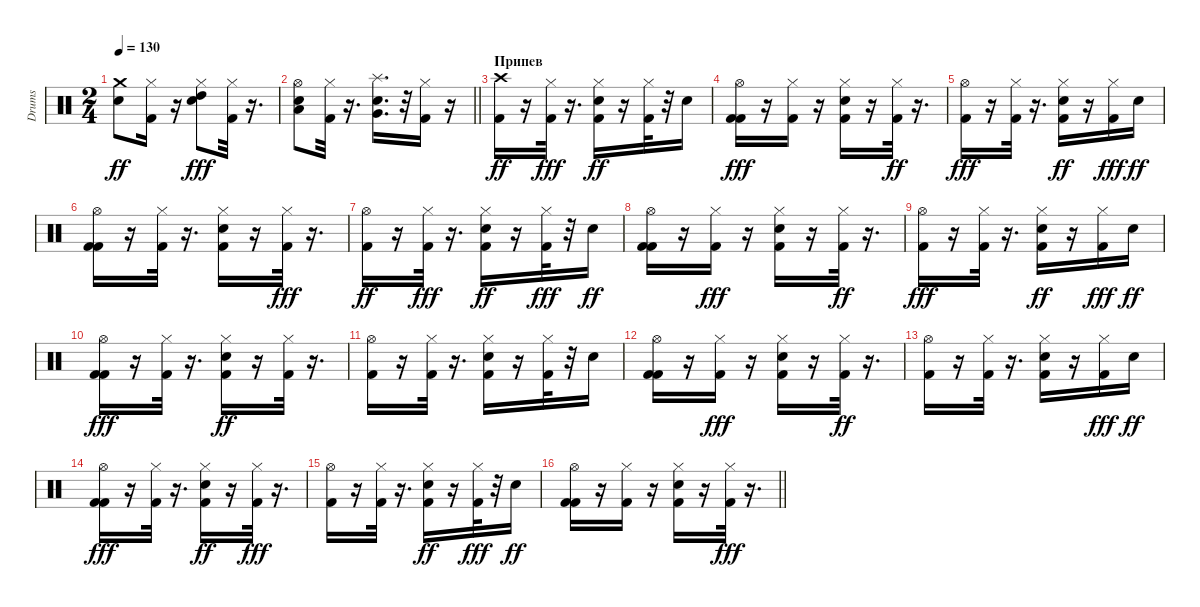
\track ("Drums" "Drums") {solo instrument percussion}
\staff {score}
\articulation defaults
\ts (2 4)
\tempo 130
\clef neutral
\ks c
("Snare (hit) 2" "Crash medium (hit)").8{dy ff} ("Hi-Hat (closed)" "Kick (hit) 2").16 r.16 ("Snare (hit) 2" "Hi-Hat (closed)" "High Tom (hit)").8{dy fff} ("Kick (hit) 2" "Hi-Hat (closed)").32 r.16{d} |
\barLineRight lightlight
("Low Tom (hit)" "Snare (hit) 2" "Hi-Hat (open)").8 ("Kick (hit) 2" "Hi-Hat (closed)").32 r.16{d} ("Splash (hit)" "Snare (hit) 2" "Very Low Tom (hit)").16{d} r.32 ("Kick (hit) 2" "Hi-Hat (closed)").16 r.16 |
\section ("" "Припев")
("Crash high (hit)" "Kick (hit) 2").16{dy ff} r.16 ("Kick (hit) 2" "Hi-Hat (closed)").32{dy fff} r.16{d} ("Snare (hit) 2" "Hi-Hat (closed)" "Kick (hit) 2").16{dy ff} r.16 ("Hi-Hat (closed)" "Kick (hit) 2").32 r.32 "Snare (hit) 2".16 |
("Kick (hit) 2" "Kick (hit) 2" "Hi-Hat (open)").16{dy fff} r.16 ("Kick (hit) 2" "Hi-Hat (closed)").16 r.16 ("Kick (hit) 2" "Snare (hit) 2" "Hi-Hat (closed)").16 r.16 ("Hi-Hat (closed)" "Kick (hit) 2").32{dy ff} r.16{d} |
("Kick (hit) 2" "Hi-Hat (open)").16{dy fff} r.16 ("Kick (hit) 2" "Hi-Hat (closed)").32 r.16{d} ("Kick (hit) 2" "Hi-Hat (closed)" "Snare (hit) 2").16{dy ff} r.16 ("Kick (hit) 2" "Hi-Hat (closed)").16{dy fff} "Snare (hit) 2".16{dy ff} |
("Kick (hit) 2" "Hi-Hat (open)" "Kick (hit) 2").16 r.16 ("Hi-Hat (closed)" "Kick (hit) 2").32 r.16{d} ("Hi-Hat (closed)" "Kick (hit) 2" "Snare (hit) 2").16 r.16 ("Kick (hit) 2" "Hi-Hat (closed)").32{dy fff} r.16{d} |
("Hi-Hat (open)" "Kick (hit) 2").16{dy ff} r.16 ("Kick (hit) 2" "Hi-Hat (closed)").32{dy fff} r.16{d} ("Kick (hit) 2" "Hi-Hat (closed)" "Snare (hit) 2").16{dy ff} r.16 ("Kick (hit) 2" "Hi-Hat (closed)").32{dy fff} r.32 "Snare (hit) 2".16{dy ff} |
("Hi-Hat (open)" "Kick (hit) 2" "Kick (hit) 2").16 r.16 ("Kick (hit) 2" "Hi-Hat (closed)").16{dy fff} r.16 ("Kick (hit) 2" "Snare (hit) 2" "Hi-Hat (closed)").16 r.16 ("Hi-Hat (closed)" "Kick (hit) 2").32{dy ff} r.16{d} |
("Kick (hit) 2" "Hi-Hat (open)").16{dy fff} r.16 ("Kick (hit) 2" "Hi-Hat (closed)").32 r.16{d} ("Kick (hit) 2" "Hi-Hat (closed)" "Snare (hit) 2").16{dy ff} r.16 ("Kick (hit) 2" "Hi-Hat (closed)").16{dy fff} "Snare (hit) 2".16{dy ff} |
("Kick (hit) 2" "Kick (hit) 2" "Hi-Hat (open)").16{dy fff} r.16 ("Kick (hit) 2" "Hi-Hat (closed)").32 r.16{d} ("Hi-Hat (closed)" "Kick (hit) 2" "Snare (hit) 2").16{dy ff} r.16 ("Hi-Hat (closed)" "Kick (hit) 2").32 r.16{d} |
("Hi-Hat (open)" "Kick (hit) 2").16 r.16 ("Hi-Hat (closed)" "Kick (hit) 2").32 r.16{d} ("Kick (hit) 2" "Hi-Hat (closed)" "Snare (hit) 2").16 r.16 ("Hi-Hat (closed)" "Kick (hit) 2").32 r.32 "Snare (hit) 2".16 |
("Kick (hit) 2" "Hi-Hat (open)" "Kick (hit) 2").16 r.16 ("Kick (hit) 2" "Hi-Hat (closed)").16{dy fff} r.16 ("Kick (hit) 2" "Snare (hit) 2" "Hi-Hat (closed)").16 r.16 ("Hi-Hat (closed)" "Kick (hit) 2").32{dy ff} r.16{d} |
("Hi-Hat (open)" "Kick (hit) 2").16 r.16 ("Hi-Hat (closed)" "Kick (hit) 2").32 r.16{d} ("Snare (hit) 2" "Hi-Hat (closed)" "Kick (hit) 2").16 r.16 ("Kick (hit) 2" "Hi-Hat (closed)").16{dy fff} "Snare (hit) 2".16{dy ff} |
("Kick (hit) 2" "Kick (hit) 2" "Hi-Hat (open)").16{dy fff} r.16 ("Kick (hit) 2" "Hi-Hat (closed)").32 r.16{d} ("Hi-Hat (closed)" "Kick (hit) 2" "Snare (hit) 2").16{dy ff} r.16 ("Kick (hit) 2" "Hi-Hat (closed)").32{dy fff} r.16{d} |
("Kick (hit) 2" "Hi-Hat (open)").16 r.16 ("Kick (hit) 2" "Hi-Hat (closed)").32 r.16{d} ("Snare (hit) 2" "Hi-Hat (closed)" "Kick (hit) 2").16{dy ff} r.16 ("Kick (hit) 2" "Hi-Hat (closed)").32{dy fff} r.32 "Snare (hit) 2".16{dy ff} |
\barLineRight lightlight
("Hi-Hat (open)" "Kick (hit) 2" "Kick (hit) 2").16 r.16 ("Hi-Hat (closed)" "Kick (hit) 2").16 r.16 ("Snare (hit) 2" "Hi-Hat (closed)" "Kick (hit) 2").16 r.16 ("Kick (hit) 2" "Hi-Hat (closed)").32{dy fff} r.16{d}
